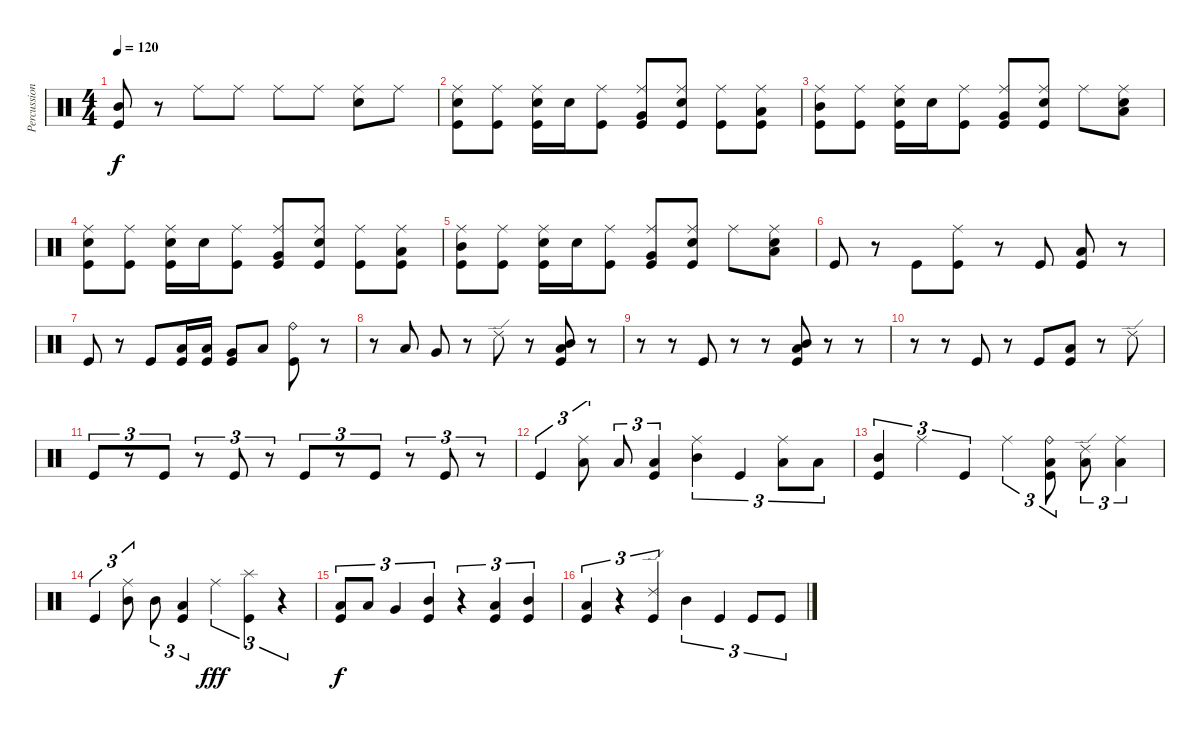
\track ("Percussion" "Percussion") {instrument percussion}
\staff {score}
\articulation defaults
\ts (4 4)
\tempo 120
\clef neutral
\ks c
("Mid Tom (hit)" "Kick (hit)").8{dy f} r.8 "Ride (middle)".8 "Ride (middle)".8 "Ride (middle)".8 "Ride (middle)".8 ("Ride (middle)" "Electric Snare (hit)").8 "Ride (middle)".8 |
("Ride (middle)" "Electric Snare (hit)" "Kick (hit)").8 ("Ride (middle)" "Kick (hit)").8 ("Ride (middle)" "Electric Snare (hit)" "Kick (hit)").16 "Electric Snare (hit)".16 ("Ride (middle)" "Kick (hit)").8 ("Ride (middle)" "Very Low Tom (hit)" "Kick (hit)").8 ("Ride (middle)" "Electric Snare (hit)" "Kick (hit)").8 ("Ride (middle)" "Kick (hit)").8 ("Ride (middle)" "Low Tom (hit)" "Kick (hit)").8 |
("Ride (middle)" "Mid Tom (hit)" "Kick (hit)").8 ("Ride (middle)" "Kick (hit)").8 ("Ride (middle)" "Electric Snare (hit)" "Kick (hit)").16 "Electric Snare (hit)".16 ("Ride (middle)" "Kick (hit)").8 ("Ride (middle)" "Very Low Tom (hit)" "Kick (hit)").8 ("Ride (middle)" "Electric Snare (hit)" "Kick (hit)").8 "Ride (middle)".8 ("Ride (middle)" "Low Tom (hit)" "Electric Snare (hit)").8 |
("Ride (middle)" "Electric Snare (hit)" "Kick (hit)").8 ("Ride (middle)" "Kick (hit)").8 ("Ride (middle)" "Electric Snare (hit)" "Kick (hit)").16 "Electric Snare (hit)".16 ("Ride (middle)" "Kick (hit)").8 ("Ride (middle)" "Very Low Tom (hit)" "Kick (hit)").8 ("Ride (middle)" "Electric Snare (hit)" "Kick (hit)").8 ("Ride (middle)" "Kick (hit)").8 ("Ride (middle)" "Low Tom (hit)" "Kick (hit)").8 |
("Ride (middle)" "Mid Tom (hit)" "Kick (hit)").8 ("Ride (middle)" "Kick (hit)").8 ("Ride (middle)" "Electric Snare (hit)" "Kick (hit)").16 "Electric Snare (hit)".16 ("Ride (middle)" "Kick (hit)").8 ("Ride (middle)" "Very Low Tom (hit)" "Kick (hit)").8 ("Ride (middle)" "Electric Snare (hit)" "Kick (hit)").8 "Ride (middle)".8 ("Ride (middle)" "Low Tom (hit)" "Electric Snare (hit)").8 |
"Kick (hit)".8 r.8 "Kick (hit)".8 ("Ride (middle)" "Kick (hit)").8 r.8 "Kick (hit)".8 ("Low Tom (hit)" "Kick (hit)").8 r.8 |
"Kick (hit)".8 r.8 "Kick (hit)".8 ("Low Tom (hit)" "Kick (hit)").16 ("Low Tom (hit)" "Kick (hit)").16 ("Very Low Tom (hit)" "Kick (hit)").8 "Low Tom (hit)".8 ("Ride (bell)" "Kick (hit)").8 r.8 |
r.8 "Low Tom (hit)".8 "Very Low Tom (hit)".8 r.8 "Ride (edge) 2".8 r.8 ("Mid Tom (hit)" "Low Tom (hit)" "Kick (hit)").8 r.8 |
r.8 r.8 "Kick (hit)".8 r.8 r.8 ("Mid Tom (hit)" "Low Tom (hit)" "Kick (hit)").8 r.8 r.8 |
r.8 r.8 "Kick (hit)".8 r.8 "Kick (hit)".8 ("Low Tom (hit)" "Kick (hit)").8 r.8 "Ride (edge) 2".8 |
"Kick (hit)".8{tu (3 2)} r.8{tu (3 2) volume 0} "Kick (hit)".8{tu (3 2) volume 14} r.8{tu (3 2)} "Kick (hit)".8{tu (3 2)} r.8{tu (3 2)} "Kick (hit)".8{tu (3 2)} r.8{tu (3 2)} "Kick (hit)".8{tu (3 2)} r.8{tu (3 2)} "Kick (hit)".8{tu (3 2)} r.8{tu (3 2)} |
"Kick (hit)".4{tu (3 2)} ("Ride (middle)" "Low Tom (hit)").8{tu (3 2)} "Low Tom (hit)".8{tu (3 2)} ("Low Tom (hit)" "Kick (hit)").4{tu (3 2)} ("Ride (middle)" "Mid Tom (hit)").4{tu (3 2)} "Kick (hit)".4{tu (3 2)} ("Ride (middle)" "Low Tom (hit)").8{tu (3 2)} "Low Tom (hit)".8{tu (3 2)} |
("Mid Tom (hit)" "Kick (hit)").4{tu (3 2)} "Ride (middle)".4{tu (3 2)} "Kick (hit)".4{tu (3 2)} "Ride (middle)".4{tu (3 2)} ("Ride (bell)" "Low Tom (hit)" "Kick (hit)").8{tu (3 2)} ("Ride (edge) 2" "Low Tom (hit)").8{tu (3 2)} ("Ride (middle)" "Low Tom (hit)").4{tu (3 2)} |
"Kick (hit)".4{tu (3 2)} ("Ride (middle)" "Mid Tom (hit)").8{tu (3 2)} "Mid Tom (hit)".8{tu (3 2)} ("Low Tom (hit)" "Kick (hit)").4{tu (3 2)} "Ride (middle)".4{tu (3 2) dy fff} ("Splash (hit)" "Kick (hit)").4{tu (3 2)} r.4{tu (3 2)} |
("Low Tom (hit)" "Kick (hit)").8{tu (3 2) dy f} "Low Tom (hit)".8{tu (3 2)} "Very Low Tom (hit)".4{tu (3 2)} ("Mid Tom (hit)" "Kick (hit)").4{tu (3 2)} r.4{tu (3 2)} ("Low Tom (hit)" "Kick (hit)").4{tu (3 2)} ("Mid Tom (hit)" "Kick (hit)").4{tu (3 2)} |
("Low Tom (hit)" "Kick (hit)").4{tu (3 2)} r.4{tu (3 2)} ("Ride (edge) 2" "Kick (hit)").4{tu (3 2)} "Mid Tom (hit)".4{tu (3 2)} "Kick (hit)".4{tu (3 2)} "Kick (hit)".8{tu (3 2)} "Kick (hit)".8{tu (3 2)}
